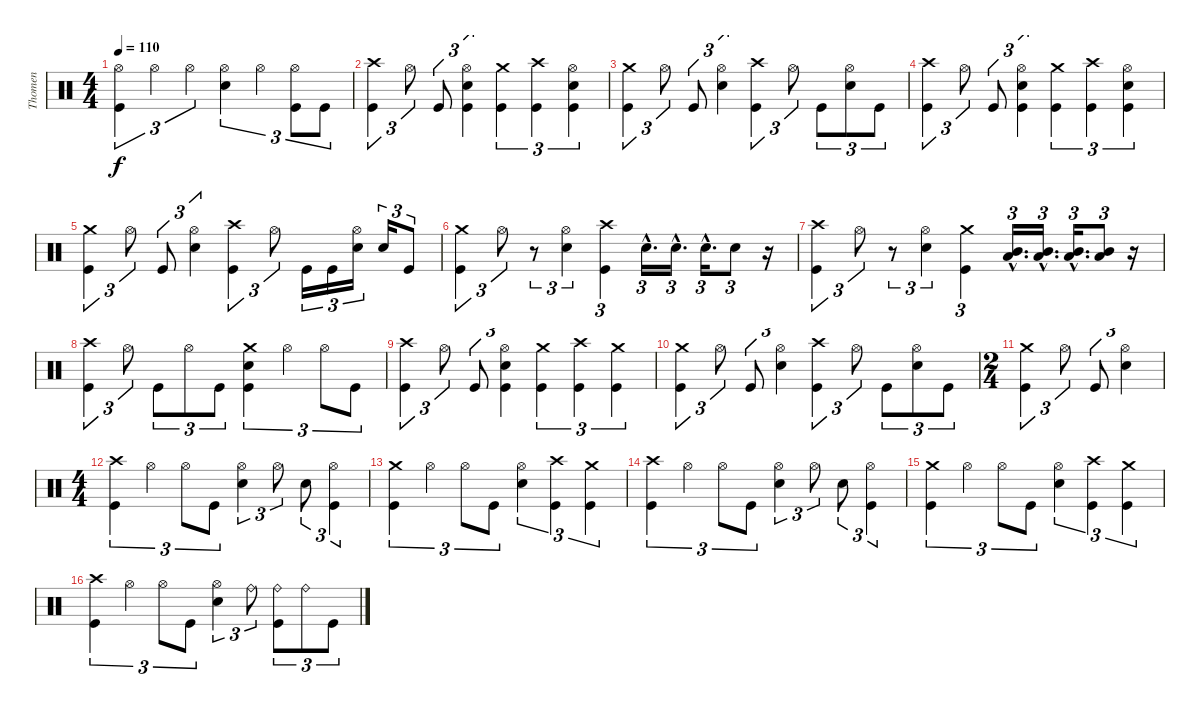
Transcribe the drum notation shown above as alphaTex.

\track ("Thomen" "Thomen") {instrument percussion}
\staff {score}
\articulation defaults
\ts (4 4)
\tempo 110
\clef neutral
\ks c
("Hi-Hat (open)" "Kick (hit)").4{tu (3 2) dy f} "Hi-Hat (open)".4{tu (3 2)} "Hi-Hat (open)".4{tu (3 2)} ("Hi-Hat (open)" "Snare (hit) 2").4{tu (3 2)} "Hi-Hat (open)".4{tu (3 2)} ("Hi-Hat (open)" "Kick (hit)").8{tu (3 2)} "Kick (hit)".8{tu (3 2)} |
("Crash high (hit)" "Kick (hit)").4{tu (3 2)} "Hi-Hat (open)".8{tu (3 2)} "Kick (hit)".8{tu (3 2)} ("Hi-Hat (open)" "Snare (hit) 2" "Kick (hit)").4{tu (3 2)} ("Crash medium (hit)" "Kick (hit)").4{tu (3 2)} ("Crash high (hit)" "Kick (hit)").4{tu (3 2)} ("Hi-Hat (open)" "Snare (hit) 2" "Kick (hit)").4{tu (3 2)} |
("Crash medium (hit)" "Kick (hit)").4{tu (3 2)} "Hi-Hat (open)".8{tu (3 2)} "Kick (hit)".8{tu (3 2)} ("Hi-Hat (open)" "Snare (hit) 2").4{tu (3 2)} ("Crash high (hit)" "Kick (hit)").4{tu (3 2)} "Hi-Hat (open)".8{tu (3 2)} "Kick (hit)".8{tu (3 2)} ("Hi-Hat (open)" "Snare (hit) 2").8{tu (3 2)} "Kick (hit)".8{tu (3 2)} |
("Crash high (hit)" "Kick (hit)").4{tu (3 2)} "Hi-Hat (open)".8{tu (3 2)} "Kick (hit)".8{tu (3 2)} ("Hi-Hat (open)" "Snare (hit) 2" "Kick (hit)").4{tu (3 2)} ("Crash medium (hit)" "Kick (hit)").4{tu (3 2)} ("Crash high (hit)" "Kick (hit)").4{tu (3 2)} ("Hi-Hat (open)" "Snare (hit) 2" "Kick (hit)").4{tu (3 2)} |
("Crash medium (hit)" "Kick (hit)").4{tu (3 2)} "Hi-Hat (open)".8{tu (3 2)} "Kick (hit)".8{tu (3 2)} ("Hi-Hat (open)" "Snare (hit) 2").4{tu (3 2)} ("Crash high (hit)" "Kick (hit)").4{tu (3 2)} "Hi-Hat (open)".8{tu (3 2)} "Kick (hit)".16{tu (3 2)} "Kick (hit)".16{tu (3 2)} ("Hi-Hat (open)" "Snare (hit) 2").16{tu (3 2)} "Snare (hit) 2".16{tu (3 2)} "Kick (hit)".8{tu (3 2)} |
("Crash medium (hit)" "Kick (hit)").4{tu (3 2)} "Hi-Hat (open)".8{tu (3 2)} r.8{tu (3 2)} ("Hi-Hat (open)" "Snare (hit) 2").4{tu (3 2)} ("Crash high (hit)" "Kick (hit)").4{tu (3 2)} "Snare (hit) 2"{hac}.16{d tu (3 2)} "Snare (hit) 2"{hac}.16{d tu (3 2)} "Snare (hit) 2"{hac}.16{d tu (3 2)} "Snare (hit) 2".8{tu (3 2)} r.16 |
("Crash high (hit)" "Kick (hit)").4{tu (3 2)} "Hi-Hat (open)".8{tu (3 2)} r.8{tu (3 2)} ("Hi-Hat (open)" "Snare (hit) 2").4{tu (3 2)} ("Crash medium (hit)" "Kick (hit)").4{tu (3 2)} ("Low Tom (hit)"{hac} "Mid Tom (hit)"{hac}).16{d tu (3 2)} ("Low Tom (hit)"{hac} "Mid Tom (hit)"{hac}).16{d tu (3 2)} ("Low Tom (hit)"{hac} "Mid Tom (hit)"{hac}).16{d tu (3 2)} ("Low Tom (hit)" "Mid Tom (hit)").8{tu (3 2)} r.16 |
("Crash high (hit)" "Kick (hit)").4{tu (3 2)} "Hi-Hat (open)".8{tu (3 2)} "Kick (hit)".8{tu (3 2)} "Hi-Hat (open)".8{tu (3 2)} "Kick (hit)".8{tu (3 2)} ("Crash medium (hit)" "Snare (hit) 2" "Kick (hit)").4{tu (3 2)} "Hi-Hat (open)".4{tu (3 2)} "Hi-Hat (open)".8{tu (3 2)} "Kick (hit)".8{tu (3 2)} |
("Crash high (hit)" "Kick (hit)").4{tu (3 2)} "Hi-Hat (open)".8{tu (3 2)} "Kick (hit)".8{tu (3 2)} ("Hi-Hat (open)" "Snare (hit) 2" "Kick (hit)").4{tu (3 2)} ("Crash medium (hit)" "Kick (hit)").4{tu (3 2)} ("Crash high (hit)" "Kick (hit)").4{tu (3 2)} ("Crash medium (hit)" "Kick (hit)").4{tu (3 2)} |
("Crash medium (hit)" "Kick (hit)").4{tu (3 2)} "Hi-Hat (open)".8{tu (3 2)} "Kick (hit)".8{tu (3 2)} ("Hi-Hat (open)" "Snare (hit) 2").4{tu (3 2)} ("Crash high (hit)" "Kick (hit)").4{tu (3 2)} "Hi-Hat (open)".8{tu (3 2)} "Kick (hit)".8{tu (3 2)} ("Hi-Hat (open)" "Snare (hit) 2").8{tu (3 2)} "Kick (hit)".8{tu (3 2)} |
\ts (2 4)
("Crash medium (hit)" "Kick (hit)").4{tu (3 2)} "Hi-Hat (open)".8{tu (3 2)} "Kick (hit)".8{tu (3 2)} ("Hi-Hat (open)" "Snare (hit) 2").4{tu (3 2)} |
\ts (4 4)
("Crash high (hit)" "Kick (hit)").4{tu (3 2)} "Hi-Hat (open)".4{tu (3 2)} "Hi-Hat (open)".8{tu (3 2)} "Kick (hit)".8{tu (3 2)} ("Hi-Hat (open)" "Snare (hit) 2").4{tu (3 2)} "Hi-Hat (open)".8{tu (3 2)} "Snare (hit) 2".8{tu (3 2)} ("Hi-Hat (open)" "Kick (hit)").4{tu (3 2)} |
("Crash medium (hit)" "Kick (hit)").4{tu (3 2)} "Hi-Hat (open)".4{tu (3 2)} "Hi-Hat (open)".8{tu (3 2)} "Kick (hit)".8{tu (3 2)} ("Hi-Hat (open)" "Snare (hit) 2").4{tu (3 2)} ("Crash high (hit)" "Kick (hit)").4{tu (3 2)} ("Crash medium (hit)" "Kick (hit)").4{tu (3 2)} |
("Crash high (hit)" "Kick (hit)").4{tu (3 2)} "Hi-Hat (open)".4{tu (3 2)} "Hi-Hat (open)".8{tu (3 2)} "Kick (hit)".8{tu (3 2)} ("Hi-Hat (open)" "Snare (hit) 2").4{tu (3 2)} "Hi-Hat (open)".8{tu (3 2)} "Snare (hit) 2".8{tu (3 2)} ("Hi-Hat (open)" "Kick (hit)").4{tu (3 2)} |
("Crash medium (hit)" "Kick (hit)").4{tu (3 2)} "Hi-Hat (open)".4{tu (3 2)} "Hi-Hat (open)".8{tu (3 2)} "Kick (hit)".8{tu (3 2)} ("Hi-Hat (open)" "Snare (hit) 2").4{tu (3 2)} ("Crash high (hit)" "Kick (hit)").4{tu (3 2)} ("Crash medium (hit)" "Kick (hit)").4{tu (3 2)} |
("Crash high (hit)" "Kick (hit)").4{tu (3 2)} "Hi-Hat (open)".4{tu (3 2)} "Hi-Hat (open)".8{tu (3 2)} "Kick (hit)".8{tu (3 2)} ("Hi-Hat (open)" "Snare (hit) 2").4{tu (3 2)} "Ride (bell)".8{tu (3 2)} ("Ride (bell)" "Kick (hit)").8{tu (3 2)} "Ride (bell)".8{tu (3 2)} "Kick (hit)".8{tu (3 2)}
